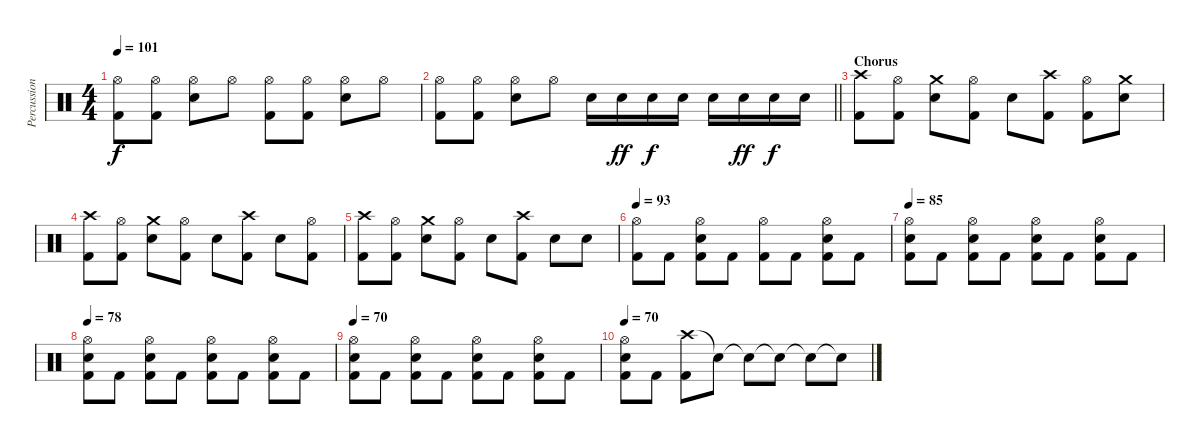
\track ("Percussion" "Percussion") {instrument percussion}
\staff {score}
\articulation defaults
\ts (4 4)
\tempo 101
\clef neutral
\ks c
("Hi-Hat (open)" "Kick (hit) 2").8{dy f} ("Hi-Hat (open)" "Kick (hit) 2").8 ("Hi-Hat (open)" "Electric Snare (hit)").8 "Hi-Hat (open)".8 ("Hi-Hat (open)" "Kick (hit) 2").8 ("Hi-Hat (open)" "Kick (hit) 2").8 ("Hi-Hat (open)" "Electric Snare (hit)").8 "Hi-Hat (open)".8 |
\barLineRight lightlight
("Hi-Hat (open)" "Kick (hit) 2").8 ("Hi-Hat (open)" "Kick (hit) 2").8 ("Hi-Hat (open)" "Electric Snare (hit)").8 "Hi-Hat (open)".8 "Electric Snare (hit)".16 "Electric Snare (hit)".16{dy ff} "Electric Snare (hit)".16{dy f} "Electric Snare (hit)".16 "Electric Snare (hit)".16 "Electric Snare (hit)".16{dy ff} "Electric Snare (hit)".16{dy f} "Electric Snare (hit)".16 |
\section ("" "Chorus")
("Crash high (hit)" "Kick (hit) 2").8 ("Hi-Hat (open)" "Kick (hit) 2").8 ("Crash medium (hit)" "Electric Snare (hit)").8 ("Hi-Hat (open)" "Kick (hit) 2").8 "Electric Snare (hit)".8 ("Crash high (hit)" "Kick (hit) 2").8 ("Hi-Hat (open)" "Kick (hit) 2").8 ("Crash medium (hit)" "Electric Snare (hit)").8 |
("Crash high (hit)" "Kick (hit) 2").8 ("Hi-Hat (open)" "Kick (hit) 2").8 ("Crash medium (hit)" "Electric Snare (hit)").8 ("Hi-Hat (open)" "Kick (hit) 2").8 "Electric Snare (hit)".8 ("Crash high (hit)" "Kick (hit) 2").8 "Electric Snare (hit)".8 ("Hi-Hat (open)" "Kick (hit) 2").8 |
("Crash high (hit)" "Kick (hit) 2").8 ("Hi-Hat (open)" "Kick (hit) 2").8 ("Crash medium (hit)" "Electric Snare (hit)").8 ("Hi-Hat (open)" "Kick (hit) 2").8 "Electric Snare (hit)".8 ("Crash high (hit)" "Kick (hit) 2").8 "Electric Snare (hit)".8 "Electric Snare (hit)".8 |
\tempo 93
("Hi-Hat (open)" "Kick (hit) 2").8 "Kick (hit) 2".8 ("Hi-Hat (open)" "Electric Snare (hit)" "Kick (hit) 2").8 "Kick (hit) 2".8 ("Hi-Hat (open)" "Kick (hit) 2").8 "Kick (hit) 2".8 ("Hi-Hat (open)" "Electric Snare (hit)" "Kick (hit) 2").8 "Kick (hit) 2".8 |
\tempo 85
("Hi-Hat (open)" "Electric Snare (hit)" "Kick (hit) 2").8 "Kick (hit) 2".8 ("Hi-Hat (open)" "Electric Snare (hit)" "Kick (hit) 2").8 "Kick (hit) 2".8 ("Hi-Hat (open)" "Electric Snare (hit)" "Kick (hit) 2").8 "Kick (hit) 2".8 ("Hi-Hat (open)" "Electric Snare (hit)" "Kick (hit) 2").8 "Kick (hit) 2".8 |
\tempo 78
("Hi-Hat (open)" "Electric Snare (hit)" "Kick (hit) 2").8 "Kick (hit) 2".8 ("Hi-Hat (open)" "Electric Snare (hit)" "Kick (hit) 2").8 "Kick (hit) 2".8 ("Hi-Hat (open)" "Electric Snare (hit)" "Kick (hit) 2").8 "Kick (hit) 2".8 ("Hi-Hat (open)" "Electric Snare (hit)" "Kick (hit) 2").8 "Kick (hit) 2".8 |
\tempo 70
("Hi-Hat (open)" "Electric Snare (hit)" "Kick (hit) 2").8 "Kick (hit) 2".8 ("Hi-Hat (open)" "Electric Snare (hit)" "Kick (hit) 2").8 "Kick (hit) 2".8 ("Hi-Hat (open)" "Electric Snare (hit)" "Kick (hit) 2").8 "Kick (hit) 2".8 ("Hi-Hat (open)" "Electric Snare (hit)" "Kick (hit) 2").8 "Kick (hit) 2".8 |
\tempo 70
("Hi-Hat (open)" "Electric Snare (hit)" "Kick (hit) 2").8 "Kick (hit) 2".8 ("Crash high (hit)" "Kick (hit) 2").8 "Snare (hit)"{t}.8 "Snare (hit)"{t}.8 "Snare (hit)"{t}.8 "Snare (hit)"{t}.8 "Snare (hit)"{t}.8
